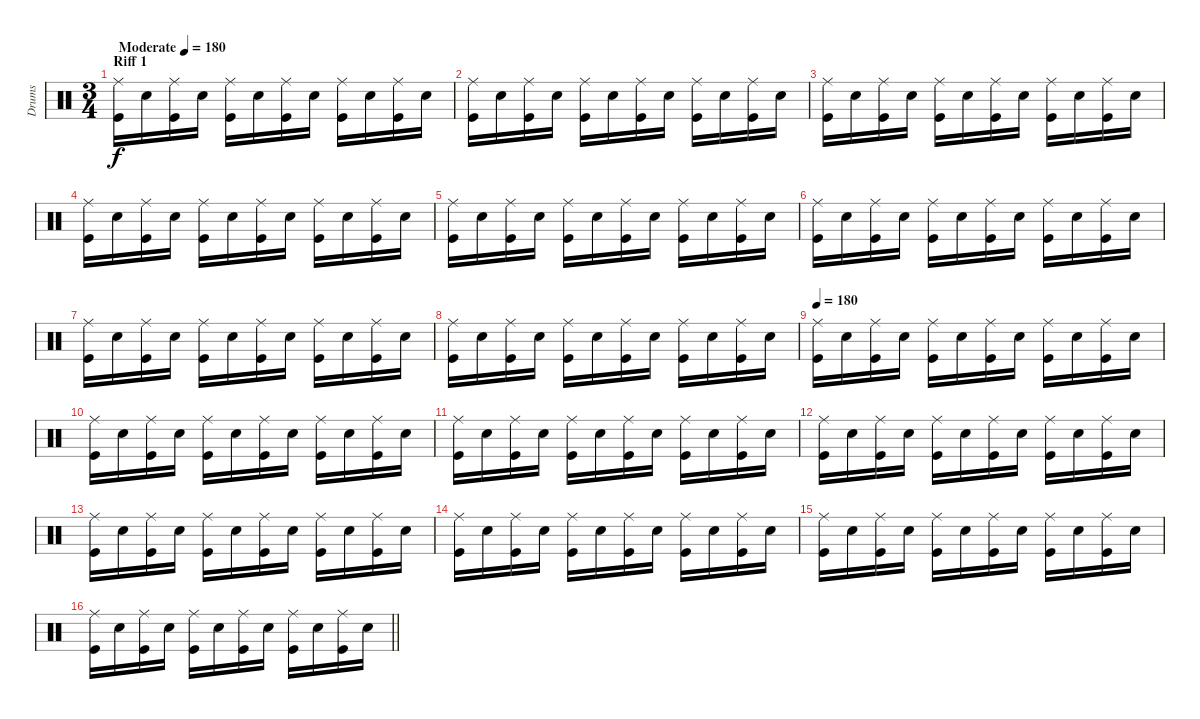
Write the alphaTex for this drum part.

\track ("Drums" "Drums") {instrument percussion}
\staff {score}
\articulation defaults
\ts (3 4)
\section ("" "Riff 1")
\tempo (180 "Moderate")
\clef neutral
\ks c
("Ride (middle)" "Kick (hit)").16{dy f} "Electric Snare (hit)".16 ("Ride (middle)" "Kick (hit)").16 "Electric Snare (hit)".16 ("Ride (middle)" "Kick (hit)").16 "Electric Snare (hit)".16 ("Ride (middle)" "Kick (hit)").16 "Electric Snare (hit)".16 ("Ride (middle)" "Kick (hit)").16 "Electric Snare (hit)".16 ("Ride (middle)" "Kick (hit)").16 "Electric Snare (hit)".16 |
("Ride (middle)" "Kick (hit)").16 "Electric Snare (hit)".16 ("Ride (middle)" "Kick (hit)").16 "Electric Snare (hit)".16 ("Ride (middle)" "Kick (hit)").16 "Electric Snare (hit)".16 ("Ride (middle)" "Kick (hit)").16 "Electric Snare (hit)".16 ("Ride (middle)" "Kick (hit)").16 "Electric Snare (hit)".16 ("Ride (middle)" "Kick (hit)").16 "Electric Snare (hit)".16 |
("Ride (middle)" "Kick (hit)").16 "Electric Snare (hit)".16 ("Ride (middle)" "Kick (hit)").16 "Electric Snare (hit)".16 ("Ride (middle)" "Kick (hit)").16 "Electric Snare (hit)".16 ("Ride (middle)" "Kick (hit)").16 "Electric Snare (hit)".16 ("Ride (middle)" "Kick (hit)").16 "Electric Snare (hit)".16 ("Ride (middle)" "Kick (hit)").16 "Electric Snare (hit)".16 |
("Ride (middle)" "Kick (hit)").16 "Electric Snare (hit)".16 ("Ride (middle)" "Kick (hit)").16 "Electric Snare (hit)".16 ("Ride (middle)" "Kick (hit)").16 "Electric Snare (hit)".16 ("Ride (middle)" "Kick (hit)").16 "Electric Snare (hit)".16 ("Ride (middle)" "Kick (hit)").16 "Electric Snare (hit)".16 ("Ride (middle)" "Kick (hit)").16 "Electric Snare (hit)".16 |
("Ride (middle)" "Kick (hit)").16 "Electric Snare (hit)".16 ("Ride (middle)" "Kick (hit)").16 "Electric Snare (hit)".16 ("Ride (middle)" "Kick (hit)").16 "Electric Snare (hit)".16 ("Ride (middle)" "Kick (hit)").16 "Electric Snare (hit)".16 ("Ride (middle)" "Kick (hit)").16 "Electric Snare (hit)".16 ("Ride (middle)" "Kick (hit)").16 "Electric Snare (hit)".16 |
("Ride (middle)" "Kick (hit)").16 "Electric Snare (hit)".16 ("Ride (middle)" "Kick (hit)").16 "Electric Snare (hit)".16 ("Ride (middle)" "Kick (hit)").16 "Electric Snare (hit)".16 ("Ride (middle)" "Kick (hit)").16 "Electric Snare (hit)".16 ("Ride (middle)" "Kick (hit)").16 "Electric Snare (hit)".16 ("Ride (middle)" "Kick (hit)").16 "Electric Snare (hit)".16 |
("Ride (middle)" "Kick (hit)").16 "Electric Snare (hit)".16 ("Ride (middle)" "Kick (hit)").16 "Electric Snare (hit)".16 ("Ride (middle)" "Kick (hit)").16 "Electric Snare (hit)".16 ("Ride (middle)" "Kick (hit)").16 "Electric Snare (hit)".16 ("Ride (middle)" "Kick (hit)").16 "Electric Snare (hit)".16 ("Ride (middle)" "Kick (hit)").16 "Electric Snare (hit)".16 |
("Ride (middle)" "Kick (hit)").16 "Electric Snare (hit)".16 ("Ride (middle)" "Kick (hit)").16 "Electric Snare (hit)".16 ("Ride (middle)" "Kick (hit)").16 "Electric Snare (hit)".16 ("Ride (middle)" "Kick (hit)").16 "Electric Snare (hit)".16 ("Ride (middle)" "Kick (hit)").16 "Electric Snare (hit)".16 ("Ride (middle)" "Kick (hit)").16 "Electric Snare (hit)".16 |
\tempo 180
("Ride (middle)" "Kick (hit)").16 "Electric Snare (hit)".16 ("Ride (middle)" "Kick (hit)").16 "Electric Snare (hit)".16 ("Ride (middle)" "Kick (hit)").16 "Electric Snare (hit)".16 ("Ride (middle)" "Kick (hit)").16 "Electric Snare (hit)".16 ("Ride (middle)" "Kick (hit)").16 "Electric Snare (hit)".16 ("Ride (middle)" "Kick (hit)").16 "Electric Snare (hit)".16 |
("Ride (middle)" "Kick (hit)").16 "Electric Snare (hit)".16 ("Ride (middle)" "Kick (hit)").16 "Electric Snare (hit)".16 ("Ride (middle)" "Kick (hit)").16 "Electric Snare (hit)".16 ("Ride (middle)" "Kick (hit)").16 "Electric Snare (hit)".16 ("Ride (middle)" "Kick (hit)").16 "Electric Snare (hit)".16 ("Ride (middle)" "Kick (hit)").16 "Electric Snare (hit)".16 |
("Ride (middle)" "Kick (hit)").16 "Electric Snare (hit)".16 ("Ride (middle)" "Kick (hit)").16 "Electric Snare (hit)".16 ("Ride (middle)" "Kick (hit)").16 "Electric Snare (hit)".16 ("Ride (middle)" "Kick (hit)").16 "Electric Snare (hit)".16 ("Ride (middle)" "Kick (hit)").16 "Electric Snare (hit)".16 ("Ride (middle)" "Kick (hit)").16 "Electric Snare (hit)".16 |
("Ride (middle)" "Kick (hit)").16 "Electric Snare (hit)".16 ("Ride (middle)" "Kick (hit)").16 "Electric Snare (hit)".16 ("Ride (middle)" "Kick (hit)").16 "Electric Snare (hit)".16 ("Ride (middle)" "Kick (hit)").16 "Electric Snare (hit)".16 ("Ride (middle)" "Kick (hit)").16 "Electric Snare (hit)".16 ("Ride (middle)" "Kick (hit)").16 "Electric Snare (hit)".16 |
("Ride (middle)" "Kick (hit)").16 "Electric Snare (hit)".16 ("Ride (middle)" "Kick (hit)").16 "Electric Snare (hit)".16 ("Ride (middle)" "Kick (hit)").16 "Electric Snare (hit)".16 ("Ride (middle)" "Kick (hit)").16 "Electric Snare (hit)".16 ("Ride (middle)" "Kick (hit)").16 "Electric Snare (hit)".16 ("Ride (middle)" "Kick (hit)").16 "Electric Snare (hit)".16 |
("Ride (middle)" "Kick (hit)").16 "Electric Snare (hit)".16 ("Ride (middle)" "Kick (hit)").16 "Electric Snare (hit)".16 ("Ride (middle)" "Kick (hit)").16 "Electric Snare (hit)".16 ("Ride (middle)" "Kick (hit)").16 "Electric Snare (hit)".16 ("Ride (middle)" "Kick (hit)").16 "Electric Snare (hit)".16 ("Ride (middle)" "Kick (hit)").16 "Electric Snare (hit)".16 |
("Ride (middle)" "Kick (hit)").16 "Electric Snare (hit)".16 ("Ride (middle)" "Kick (hit)").16 "Electric Snare (hit)".16 ("Ride (middle)" "Kick (hit)").16 "Electric Snare (hit)".16 ("Ride (middle)" "Kick (hit)").16 "Electric Snare (hit)".16 ("Ride (middle)" "Kick (hit)").16 "Electric Snare (hit)".16 ("Ride (middle)" "Kick (hit)").16 "Electric Snare (hit)".16 |
\barLineRight lightlight
("Ride (middle)" "Kick (hit)").16 "Electric Snare (hit)".16 ("Ride (middle)" "Kick (hit)").16 "Electric Snare (hit)".16 ("Ride (middle)" "Kick (hit)").16 "Electric Snare (hit)".16 ("Ride (middle)" "Kick (hit)").16 "Electric Snare (hit)".16 ("Ride (middle)" "Kick (hit)").16 "Electric Snare (hit)".16 ("Ride (middle)" "Kick (hit)").16 "Electric Snare (hit)".16
